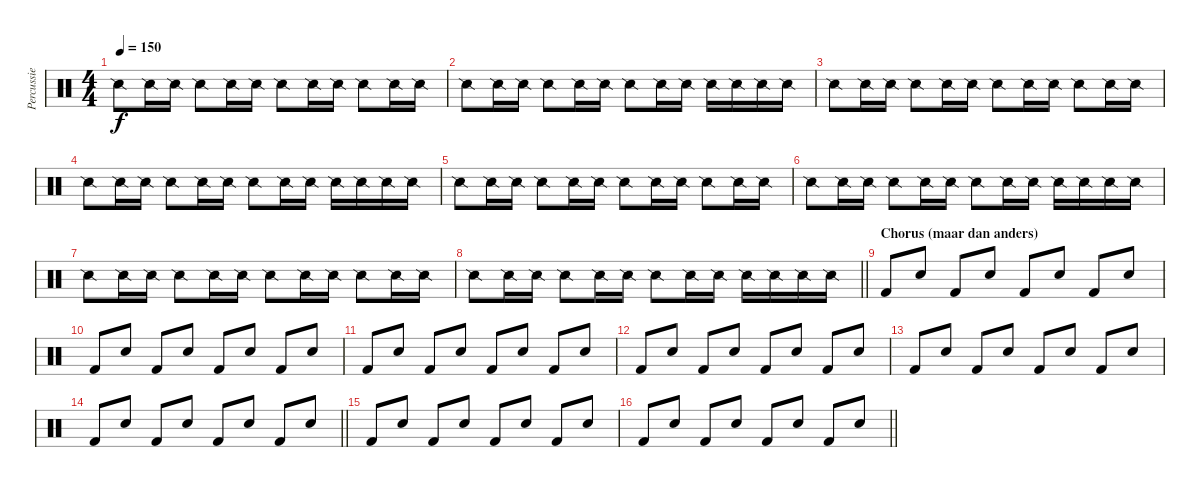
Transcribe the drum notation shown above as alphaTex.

\track ("Percussie" "Percussie") {instrument percussion}
\staff {score}
\articulation defaults
\ts (4 4)
\tempo 150
\clef neutral
\ks c "Snare (side stick) 2".8{dy f volume 9} "Snare (side stick) 2".16 "Snare (side stick) 2".16 "Snare (side stick) 2".8 "Snare (side stick) 2".16 "Snare (side stick) 2".16 "Snare (side stick) 2".8 "Snare (side stick) 2".16 "Snare (side stick) 2".16 "Snare (side stick) 2".8 "Snare (side stick) 2".16 "Snare (side stick) 2".16
|
"Snare (side stick) 2".8 "Snare (side stick) 2".16 "Snare (side stick) 2".16 "Snare (side stick) 2".8 "Snare (side stick) 2".16 "Snare (side stick) 2".16 "Snare (side stick) 2".8 "Snare (side stick) 2".16 "Snare (side stick) 2".16 "Snare (side stick) 2".16 "Snare (side stick) 2".16 "Snare (side stick) 2".16 "Snare (side stick) 2".16 |
"Snare (side stick) 2".8{volume 9} "Snare (side stick) 2".16 "Snare (side stick) 2".16 "Snare (side stick) 2".8 "Snare (side stick) 2".16 "Snare (side stick) 2".16 "Snare (side stick) 2".8 "Snare (side stick) 2".16 "Snare (side stick) 2".16 "Snare (side stick) 2".8 "Snare (side stick) 2".16 "Snare (side stick) 2".16 |
"Snare (side stick) 2".8 "Snare (side stick) 2".16 "Snare (side stick) 2".16 "Snare (side stick) 2".8 "Snare (side stick) 2".16 "Snare (side stick) 2".16 "Snare (side stick) 2".8 "Snare (side stick) 2".16 "Snare (side stick) 2".16 "Snare (side stick) 2".16 "Snare (side stick) 2".16 "Snare (side stick) 2".16 "Snare (side stick) 2".16 |
"Snare (side stick) 2".8{volume 9} "Snare (side stick) 2".16 "Snare (side stick) 2".16 "Snare (side stick) 2".8 "Snare (side stick) 2".16 "Snare (side stick) 2".16 "Snare (side stick) 2".8 "Snare (side stick) 2".16 "Snare (side stick) 2".16 "Snare (side stick) 2".8 "Snare (side stick) 2".16 "Snare (side stick) 2".16 |
"Snare (side stick) 2".8 "Snare (side stick) 2".16 "Snare (side stick) 2".16 "Snare (side stick) 2".8 "Snare (side stick) 2".16 "Snare (side stick) 2".16 "Snare (side stick) 2".8 "Snare (side stick) 2".16 "Snare (side stick) 2".16 "Snare (side stick) 2".16 "Snare (side stick) 2".16 "Snare (side stick) 2".16 "Snare (side stick) 2".16 |
"Snare (side stick) 2".8{volume 9} "Snare (side stick) 2".16 "Snare (side stick) 2".16 "Snare (side stick) 2".8 "Snare (side stick) 2".16 "Snare (side stick) 2".16 "Snare (side stick) 2".8 "Snare (side stick) 2".16 "Snare (side stick) 2".16 "Snare (side stick) 2".8 "Snare (side stick) 2".16 "Snare (side stick) 2".16 |
\barLineRight lightlight "Snare (side stick) 2".8 "Snare (side stick) 2".16 "Snare (side stick) 2".16 "Snare (side stick) 2".8 "Snare (side stick) 2".16 "Snare (side stick) 2".16 "Snare (side stick) 2".8 "Snare (side stick) 2".16 "Snare (side stick) 2".16 "Snare (side stick) 2".16 "Snare (side stick) 2".16 "Snare (side stick) 2".16 "Snare (side stick) 2".16
|
\section ("" "Chorus (maar dan anders)")
"Kick (hit) 2".8 "Snare (hit) 2".8 "Kick (hit) 2".8 "Snare (hit) 2".8 "Kick (hit) 2".8 "Snare (hit) 2".8 "Kick (hit) 2".8 "Snare (hit) 2".8 |
"Kick (hit) 2".8 "Snare (hit) 2".8 "Kick (hit) 2".8 "Snare (hit) 2".8 "Kick (hit) 2".8 "Snare (hit) 2".8 "Kick (hit) 2".8 "Snare (hit) 2".8 |
"Kick (hit) 2".8 "Snare (hit) 2".8 "Kick (hit) 2".8 "Snare (hit) 2".8 "Kick (hit) 2".8 "Snare (hit) 2".8 "Kick (hit) 2".8 "Snare (hit) 2".8 |
"Kick (hit) 2".8 "Snare (hit) 2".8 "Kick (hit) 2".8 "Snare (hit) 2".8 "Kick (hit) 2".8 "Snare (hit) 2".8 "Kick (hit) 2".8 "Snare (hit) 2".8 |
"Kick (hit) 2".8 "Snare (hit) 2".8 "Kick (hit) 2".8 "Snare (hit) 2".8 "Kick (hit) 2".8 "Snare (hit) 2".8 "Kick (hit) 2".8 "Snare (hit) 2".8 |
\barLineRight lightlight "Kick (hit) 2".8 "Snare (hit) 2".8 "Kick (hit) 2".8 "Snare (hit) 2".8 "Kick (hit) 2".8 "Snare (hit) 2".8 "Kick (hit) 2".8 "Snare (hit) 2".8
|
"Kick (hit) 2".8 "Snare (hit) 2".8 "Kick (hit) 2".8 "Snare (hit) 2".8 "Kick (hit) 2".8 "Snare (hit) 2".8 "Kick (hit) 2".8 "Snare (hit) 2".8 |
\barLineRight lightlight "Kick (hit) 2".8 "Snare (hit) 2".8 "Kick (hit) 2".8 "Snare (hit) 2".8 "Kick (hit) 2".8 "Snare (hit) 2".8 "Kick (hit) 2".8 "Snare (hit) 2".8
